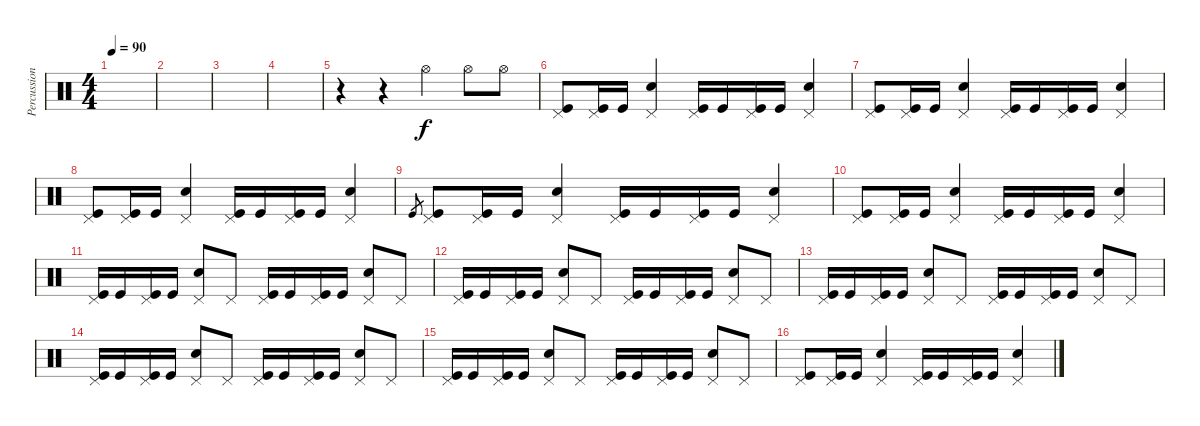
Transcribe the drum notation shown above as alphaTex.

\track ("Percussions" "Percussion") {instrument percussion}
\staff {score}
\articulation defaults
\ts (4 4)
\tempo 90
\clef neutral
\ks c
|
|
|
|
r.4 r.4 "Hi-Hat (open)".4 "Hi-Hat (open)".8 "Hi-Hat (open)".8 |
("Pedal Hi-Hat (hit)" "Kick (hit)").8 ("Pedal Hi-Hat (hit)" "Kick (hit)").16 "Kick (hit)".16 ("Pedal Hi-Hat (hit)" "Electric Snare (hit)").4 ("Pedal Hi-Hat (hit)" "Kick (hit)").16 "Kick (hit)".16 ("Pedal Hi-Hat (hit)" "Kick (hit)").16 "Kick (hit)".16 ("Pedal Hi-Hat (hit)" "Electric Snare (hit)").4 |
("Pedal Hi-Hat (hit)" "Kick (hit)").8 ("Pedal Hi-Hat (hit)" "Kick (hit)").16 "Kick (hit)".16 ("Pedal Hi-Hat (hit)" "Electric Snare (hit)").4 ("Pedal Hi-Hat (hit)" "Kick (hit)").16 "Kick (hit)".16 ("Pedal Hi-Hat (hit)" "Kick (hit)").16 "Kick (hit)".16 ("Pedal Hi-Hat (hit)" "Electric Snare (hit)").4 |
("Pedal Hi-Hat (hit)" "Kick (hit)").8 ("Pedal Hi-Hat (hit)" "Kick (hit)").16 "Kick (hit)".16 ("Pedal Hi-Hat (hit)" "Electric Snare (hit)").4 ("Pedal Hi-Hat (hit)" "Kick (hit)").16 "Kick (hit)".16 ("Pedal Hi-Hat (hit)" "Kick (hit)").16 "Kick (hit)".16 ("Pedal Hi-Hat (hit)" "Electric Snare (hit)").4 |
"Kick (hit)".8{gr} ("Pedal Hi-Hat (hit)" "Kick (hit)").8 ("Pedal Hi-Hat (hit)" "Kick (hit)").16 "Kick (hit)".16 ("Pedal Hi-Hat (hit)" "Electric Snare (hit)").4 ("Pedal Hi-Hat (hit)" "Kick (hit)").16 "Kick (hit)".16 ("Pedal Hi-Hat (hit)" "Kick (hit)").16 "Kick (hit)".16 ("Pedal Hi-Hat (hit)" "Electric Snare (hit)").4 |
("Pedal Hi-Hat (hit)" "Kick (hit)").8 ("Pedal Hi-Hat (hit)" "Kick (hit)").16 "Kick (hit)".16 ("Pedal Hi-Hat (hit)" "Electric Snare (hit)").4 ("Pedal Hi-Hat (hit)" "Kick (hit)").16 "Kick (hit)".16 ("Pedal Hi-Hat (hit)" "Kick (hit)").16 "Kick (hit)".16 ("Pedal Hi-Hat (hit)" "Electric Snare (hit)").4 |
("Pedal Hi-Hat (hit)" "Kick (hit)").16 "Kick (hit)".16 ("Pedal Hi-Hat (hit)" "Kick (hit)").16 "Kick (hit)".16 ("Pedal Hi-Hat (hit)" "Electric Snare (hit)").8 "Pedal Hi-Hat (hit)".8 ("Pedal Hi-Hat (hit)" "Kick (hit)").16 "Kick (hit)".16 ("Pedal Hi-Hat (hit)" "Kick (hit)").16 "Kick (hit)".16 ("Pedal Hi-Hat (hit)" "Electric Snare (hit)").8 "Pedal Hi-Hat (hit)".8 |
("Pedal Hi-Hat (hit)" "Kick (hit)").16 "Kick (hit)".16 ("Pedal Hi-Hat (hit)" "Kick (hit)").16 "Kick (hit)".16 ("Pedal Hi-Hat (hit)" "Electric Snare (hit)").8 "Pedal Hi-Hat (hit)".8 ("Pedal Hi-Hat (hit)" "Kick (hit)").16 "Kick (hit)".16 ("Pedal Hi-Hat (hit)" "Kick (hit)").16 "Kick (hit)".16 ("Pedal Hi-Hat (hit)" "Electric Snare (hit)").8 "Pedal Hi-Hat (hit)".8 |
("Pedal Hi-Hat (hit)" "Kick (hit)").16 "Kick (hit)".16 ("Pedal Hi-Hat (hit)" "Kick (hit)").16 "Kick (hit)".16 ("Pedal Hi-Hat (hit)" "Electric Snare (hit)").8 "Pedal Hi-Hat (hit)".8 ("Pedal Hi-Hat (hit)" "Kick (hit)").16 "Kick (hit)".16 ("Pedal Hi-Hat (hit)" "Kick (hit)").16 "Kick (hit)".16 ("Pedal Hi-Hat (hit)" "Electric Snare (hit)").8 "Pedal Hi-Hat (hit)".8 |
("Pedal Hi-Hat (hit)" "Kick (hit)").16 "Kick (hit)".16 ("Pedal Hi-Hat (hit)" "Kick (hit)").16 "Kick (hit)".16 ("Pedal Hi-Hat (hit)" "Electric Snare (hit)").8 "Pedal Hi-Hat (hit)".8 ("Pedal Hi-Hat (hit)" "Kick (hit)").16 "Kick (hit)".16 ("Pedal Hi-Hat (hit)" "Kick (hit)").16 "Kick (hit)".16 ("Pedal Hi-Hat (hit)" "Electric Snare (hit)").8 "Pedal Hi-Hat (hit)".8 |
("Pedal Hi-Hat (hit)" "Kick (hit)").16 "Kick (hit)".16 ("Pedal Hi-Hat (hit)" "Kick (hit)").16 "Kick (hit)".16 ("Pedal Hi-Hat (hit)" "Electric Snare (hit)").8 "Pedal Hi-Hat (hit)".8 ("Pedal Hi-Hat (hit)" "Kick (hit)").16 "Kick (hit)".16 ("Pedal Hi-Hat (hit)" "Kick (hit)").16 "Kick (hit)".16 ("Pedal Hi-Hat (hit)" "Electric Snare (hit)").8 "Pedal Hi-Hat (hit)".8 |
("Pedal Hi-Hat (hit)" "Kick (hit)").8 ("Pedal Hi-Hat (hit)" "Kick (hit)").16 "Kick (hit)".16 ("Pedal Hi-Hat (hit)" "Electric Snare (hit)").4 ("Pedal Hi-Hat (hit)" "Kick (hit)").16 "Kick (hit)".16 ("Pedal Hi-Hat (hit)" "Kick (hit)").16 "Kick (hit)".16 ("Pedal Hi-Hat (hit)" "Electric Snare (hit)").4
